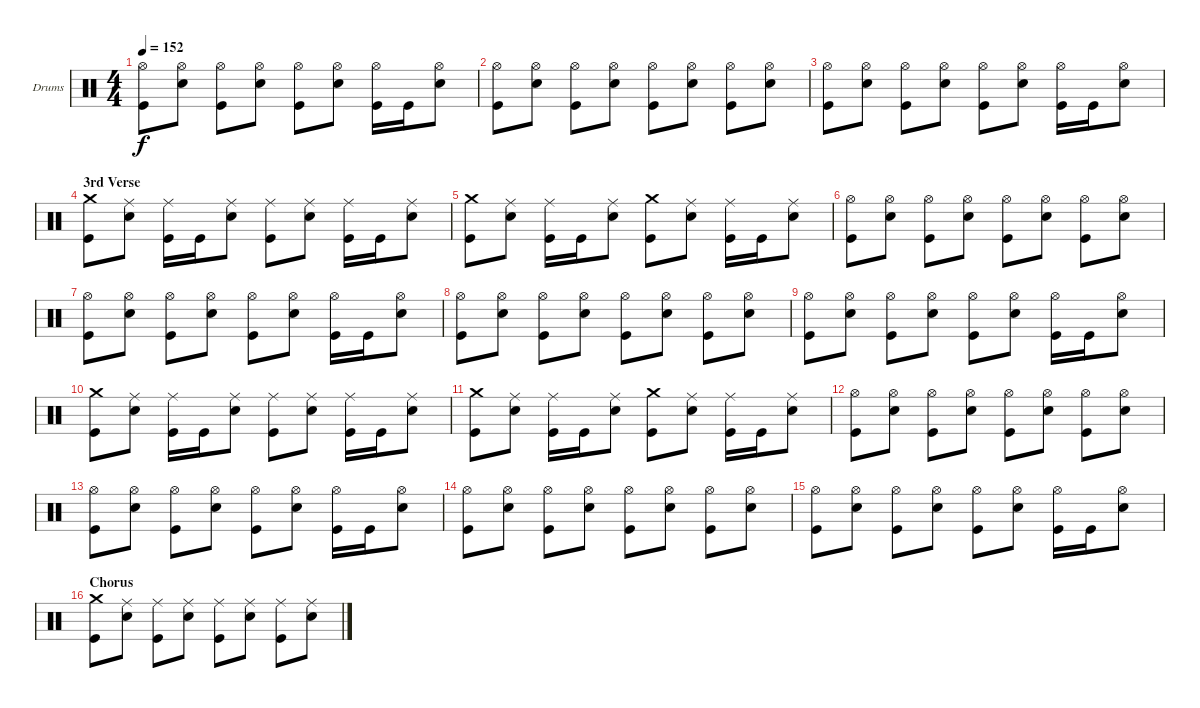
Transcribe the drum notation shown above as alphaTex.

\bracketExtendMode groupsimilarinstruments
\firstSystemTrackNameOrientation horizontal
\otherSystemsTrackNameOrientation horizontal
\track ("Drumkit" "Drums") {instrument percussion}
\staff {score}
\articulation defaults
\ts (4 4)
\tempo 152
\clef neutral
\ks c
("Hi-Hat (open)" "Kick (hit)").8{dy f} ("Hi-Hat (open)" "Snare (hit) 2").8 ("Hi-Hat (open)" "Kick (hit)").8 ("Hi-Hat (open)" "Snare (hit) 2").8 ("Hi-Hat (open)" "Kick (hit)").8 ("Hi-Hat (open)" "Snare (hit) 2").8 ("Hi-Hat (open)" "Kick (hit)").16 "Kick (hit)".16 ("Hi-Hat (open)" "Snare (hit) 2").8 |
("Hi-Hat (open)" "Kick (hit)").8 ("Hi-Hat (open)" "Snare (hit) 2").8 ("Hi-Hat (open)" "Kick (hit)").8 ("Hi-Hat (open)" "Snare (hit) 2").8 ("Hi-Hat (open)" "Kick (hit)").8 ("Hi-Hat (open)" "Snare (hit) 2").8 ("Hi-Hat (open)" "Kick (hit)").8 ("Hi-Hat (open)" "Snare (hit) 2").8 |
("Hi-Hat (open)" "Kick (hit)").8 ("Hi-Hat (open)" "Snare (hit) 2").8 ("Hi-Hat (open)" "Kick (hit)").8 ("Hi-Hat (open)" "Snare (hit) 2").8 ("Hi-Hat (open)" "Kick (hit)").8 ("Hi-Hat (open)" "Snare (hit) 2").8 ("Hi-Hat (open)" "Kick (hit)").16 "Kick (hit)".16 ("Hi-Hat (open)" "Snare (hit) 2").8 |
\section ("" "3rd Verse")
("Crash medium (hit)" "Kick (hit)").8 ("Ride (middle)" "Snare (hit) 2").8 ("Ride (middle)" "Kick (hit)").16 "Kick (hit)".16 ("Ride (middle)" "Snare (hit) 2").8 ("Ride (middle)" "Kick (hit)").8 ("Ride (middle)" "Snare (hit) 2").8 ("Ride (middle)" "Kick (hit)").16 "Kick (hit)".16 ("Ride (middle)" "Snare (hit) 2").8 |
("Crash medium (hit)" "Kick (hit)").8 ("Ride (middle)" "Snare (hit) 2").8 ("Ride (middle)" "Kick (hit)").16 "Kick (hit)".16 ("Ride (middle)" "Snare (hit) 2").8 ("Crash medium (hit)" "Kick (hit)").8 ("Ride (middle)" "Snare (hit) 2").8 ("Ride (middle)" "Kick (hit)").16 "Kick (hit)".16 ("Ride (middle)" "Snare (hit) 2").8 |
("Hi-Hat (open)" "Kick (hit)").8 ("Hi-Hat (open)" "Snare (hit) 2").8 ("Hi-Hat (open)" "Kick (hit)").8 ("Hi-Hat (open)" "Snare (hit) 2").8 ("Hi-Hat (open)" "Kick (hit)").8 ("Hi-Hat (open)" "Snare (hit) 2").8 ("Hi-Hat (open)" "Kick (hit)").8 ("Hi-Hat (open)" "Snare (hit) 2").8 |
("Hi-Hat (open)" "Kick (hit)").8 ("Hi-Hat (open)" "Snare (hit) 2").8 ("Hi-Hat (open)" "Kick (hit)").8 ("Hi-Hat (open)" "Snare (hit) 2").8 ("Hi-Hat (open)" "Kick (hit)").8 ("Hi-Hat (open)" "Snare (hit) 2").8 ("Hi-Hat (open)" "Kick (hit)").16 "Kick (hit)".16 ("Hi-Hat (open)" "Snare (hit) 2").8 |
("Hi-Hat (open)" "Kick (hit)").8 ("Hi-Hat (open)" "Snare (hit) 2").8 ("Hi-Hat (open)" "Kick (hit)").8 ("Hi-Hat (open)" "Snare (hit) 2").8 ("Hi-Hat (open)" "Kick (hit)").8 ("Hi-Hat (open)" "Snare (hit) 2").8 ("Hi-Hat (open)" "Kick (hit)").8 ("Hi-Hat (open)" "Snare (hit) 2").8 |
("Hi-Hat (open)" "Kick (hit)").8 ("Hi-Hat (open)" "Snare (hit) 2").8 ("Hi-Hat (open)" "Kick (hit)").8 ("Hi-Hat (open)" "Snare (hit) 2").8 ("Hi-Hat (open)" "Kick (hit)").8 ("Hi-Hat (open)" "Snare (hit) 2").8 ("Hi-Hat (open)" "Kick (hit)").16 "Kick (hit)".16 ("Hi-Hat (open)" "Snare (hit) 2").8 |
("Crash medium (hit)" "Kick (hit)").8 ("Ride (middle)" "Snare (hit) 2").8 ("Ride (middle)" "Kick (hit)").16 "Kick (hit)".16 ("Ride (middle)" "Snare (hit) 2").8 ("Ride (middle)" "Kick (hit)").8 ("Ride (middle)" "Snare (hit) 2").8 ("Ride (middle)" "Kick (hit)").16 "Kick (hit)".16 ("Ride (middle)" "Snare (hit) 2").8 |
("Crash medium (hit)" "Kick (hit)").8 ("Ride (middle)" "Snare (hit) 2").8 ("Ride (middle)" "Kick (hit)").16 "Kick (hit)".16 ("Ride (middle)" "Snare (hit) 2").8 ("Crash medium (hit)" "Kick (hit)").8 ("Ride (middle)" "Snare (hit) 2").8 ("Ride (middle)" "Kick (hit)").16 "Kick (hit)".16 ("Ride (middle)" "Snare (hit) 2").8 |
("Hi-Hat (open)" "Kick (hit)").8 ("Hi-Hat (open)" "Snare (hit) 2").8 ("Hi-Hat (open)" "Kick (hit)").8 ("Hi-Hat (open)" "Snare (hit) 2").8 ("Hi-Hat (open)" "Kick (hit)").8 ("Hi-Hat (open)" "Snare (hit) 2").8 ("Hi-Hat (open)" "Kick (hit)").8 ("Hi-Hat (open)" "Snare (hit) 2").8 |
("Hi-Hat (open)" "Kick (hit)").8 ("Hi-Hat (open)" "Snare (hit) 2").8 ("Hi-Hat (open)" "Kick (hit)").8 ("Hi-Hat (open)" "Snare (hit) 2").8 ("Hi-Hat (open)" "Kick (hit)").8 ("Hi-Hat (open)" "Snare (hit) 2").8 ("Hi-Hat (open)" "Kick (hit)").16 "Kick (hit)".16 ("Hi-Hat (open)" "Snare (hit) 2").8 |
("Hi-Hat (open)" "Kick (hit)").8 ("Hi-Hat (open)" "Snare (hit) 2").8 ("Hi-Hat (open)" "Kick (hit)").8 ("Hi-Hat (open)" "Snare (hit) 2").8 ("Hi-Hat (open)" "Kick (hit)").8 ("Hi-Hat (open)" "Snare (hit) 2").8 ("Hi-Hat (open)" "Kick (hit)").8 ("Hi-Hat (open)" "Snare (hit) 2").8 |
("Hi-Hat (open)" "Kick (hit)").8 ("Hi-Hat (open)" "Snare (hit) 2").8 ("Hi-Hat (open)" "Kick (hit)").8 ("Hi-Hat (open)" "Snare (hit) 2").8 ("Hi-Hat (open)" "Kick (hit)").8 ("Hi-Hat (open)" "Snare (hit) 2").8 ("Hi-Hat (open)" "Kick (hit)").16 "Kick (hit)".16 ("Hi-Hat (open)" "Snare (hit) 2").8 |
\section ("" "Chorus")
("Crash medium (hit)" "Kick (hit)").8 ("Ride (middle)" "Snare (hit) 2").8 ("Ride (middle)" "Kick (hit)").8 ("Ride (middle)" "Snare (hit) 2").8 ("Ride (middle)" "Kick (hit)").8 ("Ride (middle)" "Snare (hit) 2").8 ("Ride (middle)" "Kick (hit)").8 ("Ride (middle)" "Snare (hit) 2").8
